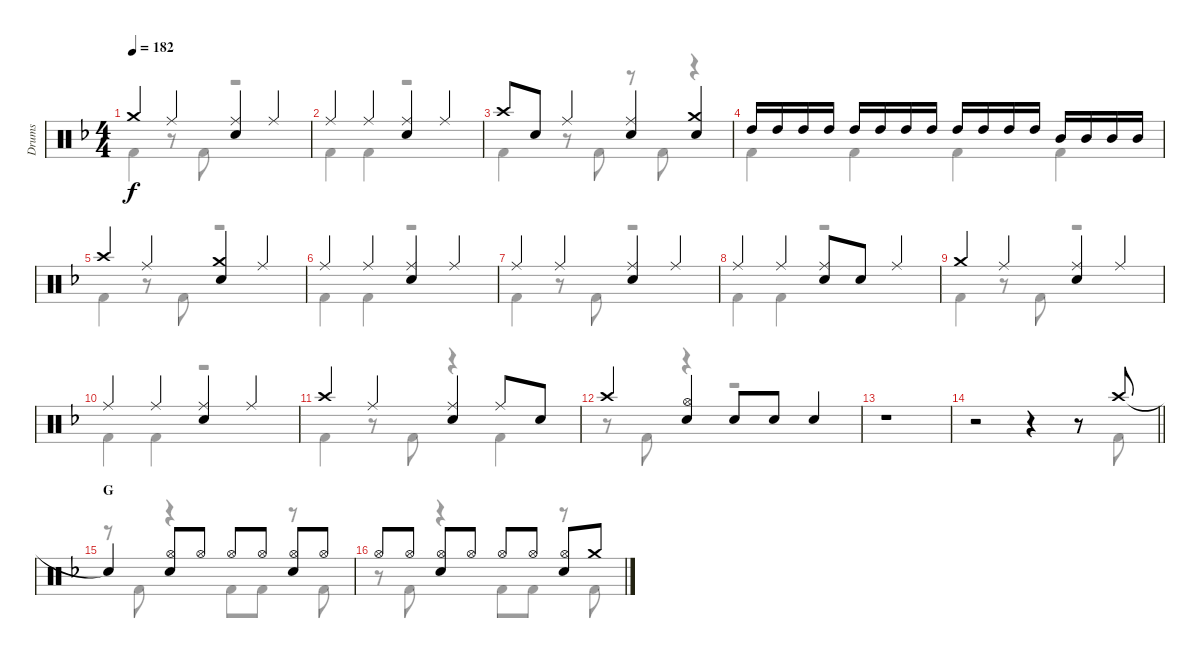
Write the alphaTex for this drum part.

\track ("Drums" "Drums") {instrument percussion}
\staff {score}
\articulation defaults
\voice
\ts (4 4)
\tempo 182
\clef neutral
\ks f "Crash medium (hit)".4{dy f} "Ride (middle)".4
("Ride (middle)" "Snare (hit) 2").4 "Ride (middle)".4 |
"Ride (middle)".4 "Ride (middle)".4 ("Ride (middle)" "Snare (hit) 2").4 "Ride (middle)".4 |
"Crash high (hit)".8 "Snare (hit) 2".8 "Ride (middle)".4 ("Ride (middle)" "Snare (hit) 2").4 ("Crash medium (hit)" "Snare (hit) 2").4 |
"High Tom (hit)".16 "High Tom (hit)".16 "High Tom (hit)".16 "High Tom (hit)".16 "High Tom (hit)".16 "High Tom (hit)".16 "High Tom (hit)".16 "High Tom (hit)".16 "High Tom (hit)".16 "High Tom (hit)".16 "High Tom (hit)".16 "High Tom (hit)".16 "Mid Tom (hit)".16 "Mid Tom (hit)".16 "Mid Tom (hit)".16 "Mid Tom (hit)".16 |
"Crash high (hit)".4 "Ride (middle)".4 ("Crash medium (hit)" "Snare (hit) 2").4 "Ride (middle)".4 |
"Ride (middle)".4 "Ride (middle)".4 ("Ride (middle)" "Snare (hit) 2").4 "Ride (middle)".4 |
"Ride (middle)".4 "Ride (middle)".4 ("Ride (middle)" "Snare (hit) 2").4 "Ride (middle)".4 |
"Ride (middle)".4 "Ride (middle)".4 ("Ride (middle)" "Snare (hit) 2").8 "Snare (hit) 2".8 "Ride (middle)".4 |
"Crash medium (hit)".4 "Ride (middle)".4 ("Ride (middle)" "Snare (hit) 2").4 "Ride (middle)".4 |
"Ride (middle)".4 "Ride (middle)".4 ("Ride (middle)" "Snare (hit) 2").4 "Ride (middle)".4 |
"Crash high (hit)".4 "Ride (middle)".4 ("Ride (middle)" "Snare (hit) 2").4 "Ride (middle)".8 "Snare (hit) 2".8 |
"Crash high (hit)".4 ("Hi-Hat (open)" "Snare (hit) 2").4 "Snare (hit) 2".8 "Snare (hit) 2".8 "Snare (hit) 2".4 |
r.1 |
\barLineRight lightlight
r.2 r.4 r.8 "Crash high (hit)".8 |
\section ("" "G")
"Snare (hit)"{t}.4 ("Hi-Hat (open)" "Snare (hit) 2").8 "Hi-Hat (open)".8 "Hi-Hat (open)".8 "Hi-Hat (open)".8 ("Hi-Hat (open)" "Snare (hit) 2").8 "Hi-Hat (open)".8 |
"Hi-Hat (open)".8 "Hi-Hat (open)".8 ("Hi-Hat (open)" "Snare (hit) 2").8 "Hi-Hat (open)".8 "Hi-Hat (open)".8 "Hi-Hat (open)".8 ("Hi-Hat (open)" "Snare (hit) 2").8 "Crash medium (hit)".8
\voice
\clef neutral
\ottava regular
\simile none
\ks f "Kick (hit) 2".4{dy f}
r.8 "Kick (hit) 2".8 r.2 |
"Kick (hit) 2".4 "Kick (hit) 2".4 r.2 |
"Kick (hit) 2".4 r.8 "Kick (hit) 2".8 r.8 "Kick (hit) 2".8 r.4 |
"Kick (hit) 2".4 "Kick (hit) 2".4 "Kick (hit) 2".4 "Kick (hit) 2".4 |
"Kick (hit) 2".4 r.8 "Kick (hit) 2".8 r.2 |
"Kick (hit) 2".4 "Kick (hit) 2".4 r.2 |
"Kick (hit) 2".4 r.8 "Kick (hit) 2".8 r.2 |
"Kick (hit) 2".4 "Kick (hit) 2".4 r.2 |
"Kick (hit) 2".4 r.8 "Kick (hit) 2".8 r.2 |
"Kick (hit) 2".4 "Kick (hit) 2".4 r.2 |
"Kick (hit) 2".4 r.8 "Kick (hit) 2".8 r.4 "Kick (hit) 2".4 |
r.8 "Kick (hit) 2".8 r.4 r.2 |
r.1 |
\barLineRight lightlight
r.2 r.4 r.8 "Kick (hit) 2".8 |
r.8 "Kick (hit) 2".8 r.4 "Kick (hit) 2".8 "Kick (hit) 2".8 r.8 "Kick (hit) 2".8 |
r.8 "Kick (hit) 2".8 r.4 "Kick (hit) 2".8 "Kick (hit) 2".8 r.8 "Kick (hit) 2".8
